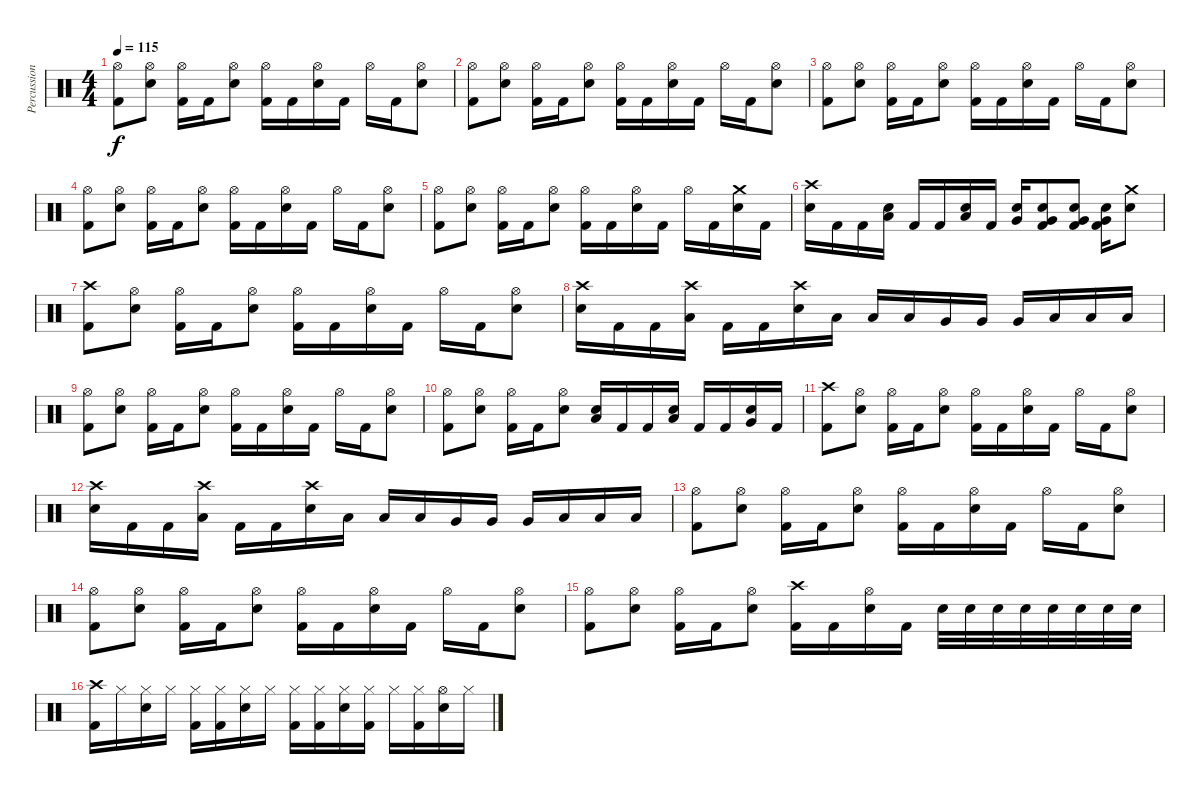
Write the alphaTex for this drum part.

\track ("Percussion" "Percussion") {instrument percussion}
\staff {score}
\articulation defaults
\ts (4 4)
\tempo 115
\clef neutral
\ks c
("Hi-Hat (open)" "Kick (hit) 2").8{dy f} ("Hi-Hat (open)" "Electric Snare (hit)").8 ("Hi-Hat (open)" "Kick (hit) 2").16 "Kick (hit) 2".16 ("Hi-Hat (open)" "Electric Snare (hit)").8 ("Hi-Hat (open)" "Kick (hit) 2").16 "Kick (hit) 2".16 ("Hi-Hat (open)" "Electric Snare (hit)").16 "Kick (hit) 2".16 "Hi-Hat (open)".16 "Kick (hit) 2".16 ("Hi-Hat (open)" "Electric Snare (hit)").8 |
("Hi-Hat (open)" "Kick (hit) 2").8 ("Hi-Hat (open)" "Electric Snare (hit)").8 ("Hi-Hat (open)" "Kick (hit) 2").16 "Kick (hit) 2".16 ("Hi-Hat (open)" "Electric Snare (hit)").8 ("Hi-Hat (open)" "Kick (hit) 2").16 "Kick (hit) 2".16 ("Hi-Hat (open)" "Electric Snare (hit)").16 "Kick (hit) 2".16 "Hi-Hat (open)".16 "Kick (hit) 2".16 ("Hi-Hat (open)" "Electric Snare (hit)").8 |
("Hi-Hat (open)" "Kick (hit) 2").8 ("Hi-Hat (open)" "Electric Snare (hit)").8 ("Hi-Hat (open)" "Kick (hit) 2").16 "Kick (hit) 2".16 ("Hi-Hat (open)" "Electric Snare (hit)").8 ("Hi-Hat (open)" "Kick (hit) 2").16 "Kick (hit) 2".16 ("Hi-Hat (open)" "Electric Snare (hit)").16 "Kick (hit) 2".16 "Hi-Hat (open)".16 "Kick (hit) 2".16 ("Hi-Hat (open)" "Electric Snare (hit)").8 |
("Hi-Hat (open)" "Kick (hit) 2").8 ("Hi-Hat (open)" "Electric Snare (hit)").8 ("Hi-Hat (open)" "Kick (hit) 2").16 "Kick (hit) 2".16 ("Hi-Hat (open)" "Electric Snare (hit)").8 ("Hi-Hat (open)" "Kick (hit) 2").16 "Kick (hit) 2".16 ("Hi-Hat (open)" "Electric Snare (hit)").16 "Kick (hit) 2".16 "Hi-Hat (open)".16 "Kick (hit) 2".16 ("Hi-Hat (open)" "Electric Snare (hit)").8 |
("Hi-Hat (open)" "Kick (hit) 2").8 ("Hi-Hat (open)" "Electric Snare (hit)").8 ("Hi-Hat (open)" "Kick (hit) 2").16 "Kick (hit) 2".16 ("Hi-Hat (open)" "Electric Snare (hit)").8 ("Hi-Hat (open)" "Kick (hit) 2").16 "Kick (hit) 2".16 ("Hi-Hat (open)" "Electric Snare (hit)").16 "Kick (hit) 2".16 "Hi-Hat (open)".16 "Kick (hit) 2".16 ("Crash medium (hit)" "Electric Snare (hit)").16 "Kick (hit) 2".16 |
("Crash high (hit)" "Electric Snare (hit)").16 "Kick (hit) 2".16 "Kick (hit) 2".16 ("Low Tom (hit)" "Electric Snare (hit)").16 "Kick (hit) 2".16 "Kick (hit) 2".16 ("Low Tom (hit)" "Electric Snare (hit)").16 "Kick (hit) 2".16 ("Very Low Tom (hit)" "Electric Snare (hit)").16 ("Very Low Tom (hit)" "Electric Snare (hit)" "Kick (hit) 2").8 ("Very Low Tom (hit)" "Electric Snare (hit)" "Kick (hit) 2").8 ("Very Low Tom (hit)" "Electric Snare (hit)" "Kick (hit) 2").16 ("Crash medium (hit)" "Electric Snare (hit)").8 |
("Crash high (hit)" "Kick (hit) 2").8 ("Hi-Hat (open)" "Electric Snare (hit)").8 ("Hi-Hat (open)" "Kick (hit) 2").16 "Kick (hit) 2".16 ("Hi-Hat (open)" "Electric Snare (hit)").8 ("Hi-Hat (open)" "Kick (hit) 2").16 "Kick (hit) 2".16 ("Hi-Hat (open)" "Electric Snare (hit)").16 "Kick (hit) 2".16 "Hi-Hat (open)".16 "Kick (hit) 2".16 ("Hi-Hat (open)" "Electric Snare (hit)").8 |
("Crash high (hit)" "Electric Snare (hit)").16 "Kick (hit) 2".16 "Kick (hit) 2".16 ("Crash high (hit)" "Low Tom (hit)").16 "Kick (hit) 2".16 "Kick (hit) 2".16 ("Crash high (hit)" "Electric Snare (hit)").16 "Low Tom (hit)".16 "Low Tom (hit)".16 "Low Tom (hit)".16 "Very Low Tom (hit)".16 "Very Low Tom (hit)".16 "Very Low Tom (hit)".16 "Low Floor Tom (hit)".16 "Low Floor Tom (hit)".16 "Low Floor Tom (hit)".16 |
("Hi-Hat (open)" "Kick (hit) 2").8 ("Hi-Hat (open)" "Electric Snare (hit)").8 ("Hi-Hat (open)" "Kick (hit) 2").16 "Kick (hit) 2".16 ("Hi-Hat (open)" "Electric Snare (hit)").8 ("Hi-Hat (open)" "Kick (hit) 2").16 "Kick (hit) 2".16 ("Hi-Hat (open)" "Electric Snare (hit)").16 "Kick (hit) 2".16 "Hi-Hat (open)".16 "Kick (hit) 2".16 ("Hi-Hat (open)" "Electric Snare (hit)").8 |
("Hi-Hat (open)" "Kick (hit) 2").8 ("Hi-Hat (open)" "Electric Snare (hit)").8 ("Hi-Hat (open)" "Kick (hit) 2").16 "Kick (hit) 2".16 ("Hi-Hat (open)" "Electric Snare (hit)").8 ("Low Tom (hit)" "Electric Snare (hit)").16 "Kick (hit) 2".16 "Kick (hit) 2".16 ("Low Tom (hit)" "Electric Snare (hit)").16 "Kick (hit) 2".16 "Kick (hit) 2".16 ("Very Low Tom (hit)" "Electric Snare (hit)").16 "Kick (hit) 2".16 |
("Crash high (hit)" "Kick (hit) 2").8 ("Hi-Hat (open)" "Electric Snare (hit)").8 ("Hi-Hat (open)" "Kick (hit) 2").16 "Kick (hit) 2".16 ("Hi-Hat (open)" "Electric Snare (hit)").8 ("Hi-Hat (open)" "Kick (hit) 2").16 "Kick (hit) 2".16 ("Hi-Hat (open)" "Electric Snare (hit)").16 "Kick (hit) 2".16 "Hi-Hat (open)".16 "Kick (hit) 2".16 ("Hi-Hat (open)" "Electric Snare (hit)").8 |
("Crash high (hit)" "Electric Snare (hit)").16 "Kick (hit) 2".16 "Kick (hit) 2".16 ("Crash high (hit)" "Low Tom (hit)").16 "Kick (hit) 2".16 "Kick (hit) 2".16 ("Crash high (hit)" "Electric Snare (hit)").16 "Low Tom (hit)".16 "Low Tom (hit)".16 "Low Tom (hit)".16 "Very Low Tom (hit)".16 "Very Low Tom (hit)".16 "Very Low Tom (hit)".16 "Low Floor Tom (hit)".16 "Low Floor Tom (hit)".16 "Low Floor Tom (hit)".16 |
("Hi-Hat (open)" "Kick (hit) 2").8 ("Hi-Hat (open)" "Electric Snare (hit)").8 ("Hi-Hat (open)" "Kick (hit) 2").16 "Kick (hit) 2".16 ("Hi-Hat (open)" "Electric Snare (hit)").8 ("Hi-Hat (open)" "Kick (hit) 2").16 "Kick (hit) 2".16 ("Hi-Hat (open)" "Electric Snare (hit)").16 "Kick (hit) 2".16 "Hi-Hat (open)".16 "Kick (hit) 2".16 ("Hi-Hat (open)" "Electric Snare (hit)").8 |
("Hi-Hat (open)" "Kick (hit) 2").8 ("Hi-Hat (open)" "Electric Snare (hit)").8 ("Hi-Hat (open)" "Kick (hit) 2").16 "Kick (hit) 2".16 ("Hi-Hat (open)" "Electric Snare (hit)").8 ("Hi-Hat (open)" "Kick (hit) 2").16 "Kick (hit) 2".16 ("Hi-Hat (open)" "Electric Snare (hit)").16 "Kick (hit) 2".16 "Hi-Hat (open)".16 "Kick (hit) 2".16 ("Hi-Hat (open)" "Electric Snare (hit)").8 |
("Hi-Hat (open)" "Kick (hit) 2").8 ("Hi-Hat (open)" "Electric Snare (hit)").8 ("Hi-Hat (open)" "Kick (hit) 2").16 "Kick (hit) 2".16 ("Hi-Hat (open)" "Electric Snare (hit)").8 ("Crash high (hit)" "Kick (hit) 2").16 "Kick (hit) 2".16 ("Hi-Hat (open)" "Electric Snare (hit)").16 "Kick (hit) 2".16 "Electric Snare (hit)".32 "Electric Snare (hit)".32 "Electric Snare (hit)".32 "Electric Snare (hit)".32 "Electric Snare (hit)".32 "Electric Snare (hit)".32 "Electric Snare (hit)".32 "Electric Snare (hit)".32 |
("Crash high (hit)" "Kick (hit) 2").16 "Hi-Hat (closed)".16 ("Hi-Hat (closed)" "Electric Snare (hit)").16 "Hi-Hat (closed)".16 ("Hi-Hat (closed)" "Kick (hit) 2").16 ("Hi-Hat (closed)" "Kick (hit) 2").16 ("Hi-Hat (closed)" "Electric Snare (hit)").16 "Hi-Hat (closed)".16 ("Hi-Hat (closed)" "Kick (hit) 2").16 ("Hi-Hat (closed)" "Kick (hit) 2").16 ("Hi-Hat (closed)" "Electric Snare (hit)").16 ("Hi-Hat (closed)" "Kick (hit) 2").16 "Hi-Hat (closed)".16 ("Hi-Hat (closed)" "Kick (hit) 2").16 ("Hi-Hat (open)" "Electric Snare (hit)").16 "Hi-Hat (closed)".16
